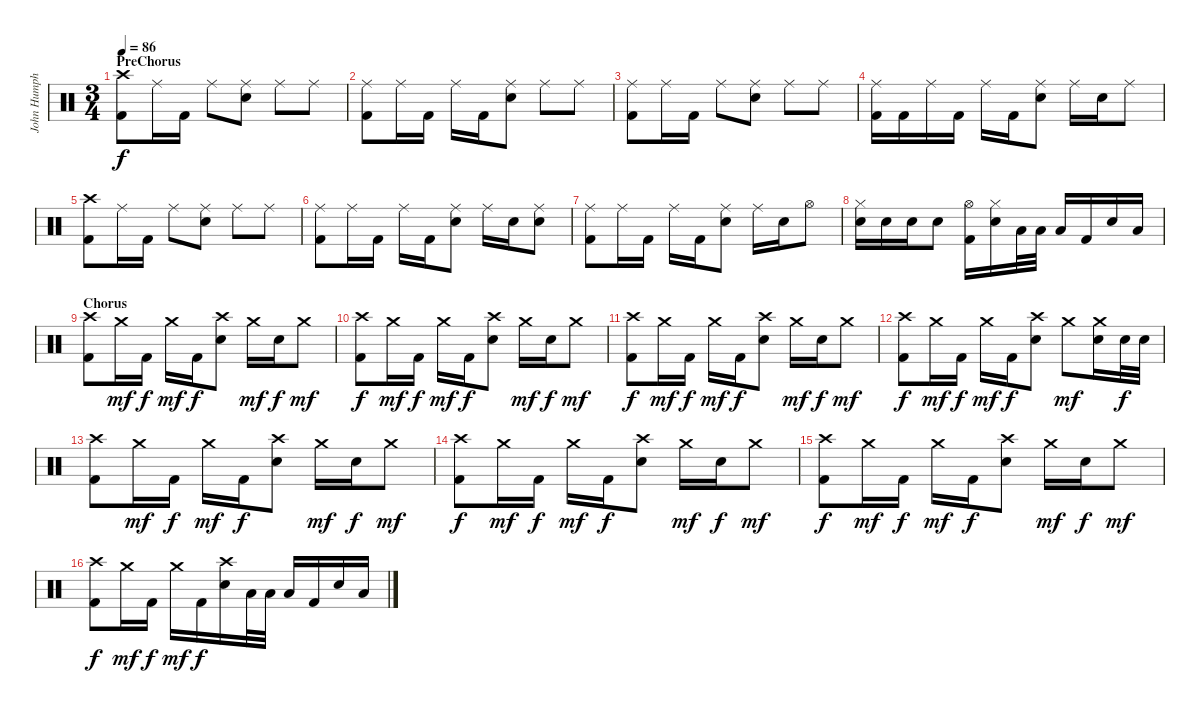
\track ("John Humphrey" "John Humph") {instrument percussion}
\staff {score}
\articulation defaults
\ts (3 4)
\section ("" "PreChorus")
\tempo 86
\clef neutral
\ks c
("Crash high (hit)" "Kick (hit) 2").8{dy f} "Ride (middle)".16 "Kick (hit) 2".16 "Ride (middle)".8 ("Ride (middle)" "Snare (hit) 2").8 "Ride (middle)".8 "Ride (middle)".8 |
("Ride (middle)" "Kick (hit) 2").8 "Ride (middle)".16 "Kick (hit) 2".16 "Ride (middle)".16 "Kick (hit) 2".16 ("Ride (middle)" "Snare (hit) 2").8 "Ride (middle)".8 "Ride (middle)".8 |
("Ride (middle)" "Kick (hit) 2").8 "Ride (middle)".16 "Kick (hit) 2".16 "Ride (middle)".8 ("Ride (middle)" "Snare (hit) 2").8 "Ride (middle)".8 "Ride (middle)".8 |
("Ride (middle)" "Kick (hit) 2").16 "Kick (hit) 2".16 "Ride (middle)".16 "Kick (hit) 2".16 "Ride (middle)".16 "Kick (hit) 2".16 ("Ride (middle)" "Snare (hit) 2").8 "Ride (middle)".16 "Snare (hit) 2".16 "Ride (middle)".8 |
("Crash high (hit)" "Kick (hit) 2").8 "Ride (middle)".16 "Kick (hit) 2".16 "Ride (middle)".8 ("Ride (middle)" "Snare (hit) 2").8 "Ride (middle)".8 "Ride (middle)".8 |
("Ride (middle)" "Kick (hit) 2").8 "Ride (middle)".16 "Kick (hit) 2".16 "Ride (middle)".16 "Kick (hit) 2".16 ("Ride (middle)" "Snare (hit) 2").8 "Ride (middle)".16 "Snare (hit) 2".16 ("Ride (middle)" "Snare (hit) 2").8 |
("Ride (middle)" "Kick (hit) 2").8 "Ride (middle)".16 "Kick (hit) 2".16 "Ride (middle)".16 "Kick (hit) 2".16 ("Ride (middle)" "Snare (hit) 2").8 "Ride (middle)".16 "Snare (hit) 2".16 "Hi-Hat (open)".8 |
("Hi-Hat (closed)" "Snare (hit) 2").16 "Snare (hit) 2".16 "Snare (hit) 2".16 "Snare (hit) 2".8 ("Hi-Hat (open)" "Kick (hit) 2").16 ("Hi-Hat (closed)" "Snare (hit) 2").16 "Low Tom (hit)".32 "Low Tom (hit)".32 "Low Tom (hit)".16 "Kick (hit) 2".16 "Snare (hit) 2".16 "Low Floor Tom (hit)".16 |
\section ("" "Chorus")
("Crash high (hit)" "Kick (hit) 2").8 "Crash medium (hit)".16{dy mf} "Kick (hit) 2".16{dy f} "Crash medium (hit)".16{dy mf} "Kick (hit) 2".16{dy f} ("Crash high (hit)" "Snare (hit) 2").8 "Crash medium (hit)".16{dy mf} "Snare (hit) 2".16{dy f} "Crash medium (hit)".8{dy mf} |
("Crash high (hit)" "Kick (hit) 2").8{dy f} "Crash medium (hit)".16{dy mf} "Kick (hit) 2".16{dy f} "Crash medium (hit)".16{dy mf} "Kick (hit) 2".16{dy f} ("Crash high (hit)" "Snare (hit) 2").8 "Crash medium (hit)".16{dy mf} "Snare (hit) 2".16{dy f} "Crash medium (hit)".8{dy mf} |
("Crash high (hit)" "Kick (hit) 2").8{dy f} "Crash medium (hit)".16{dy mf} "Kick (hit) 2".16{dy f} "Crash medium (hit)".16{dy mf} "Kick (hit) 2".16{dy f} ("Crash high (hit)" "Snare (hit) 2").8 "Crash medium (hit)".16{dy mf} "Snare (hit) 2".16{dy f} "Crash medium (hit)".8{dy mf} |
("Crash high (hit)" "Kick (hit) 2").8{dy f} "Crash medium (hit)".16{dy mf} "Kick (hit) 2".16{dy f} "Crash medium (hit)".16{dy mf} "Kick (hit) 2".16{dy f} ("Crash high (hit)" "Snare (hit) 2").8 "Crash medium (hit)".8{dy mf} ("Crash medium (hit)" "Snare (hit) 2").16 "Snare (hit) 2".32{dy f} "Snare (hit) 2".32 |
("Crash high (hit)" "Kick (hit) 2").8 "Crash medium (hit)".16{dy mf} "Kick (hit) 2".16{dy f} "Crash medium (hit)".16{dy mf} "Kick (hit) 2".16{dy f} ("Crash high (hit)" "Snare (hit) 2").8 "Crash medium (hit)".16{dy mf} "Snare (hit) 2".16{dy f} "Crash medium (hit)".8{dy mf} |
("Crash high (hit)" "Kick (hit) 2").8{dy f} "Crash medium (hit)".16{dy mf} "Kick (hit) 2".16{dy f} "Crash medium (hit)".16{dy mf} "Kick (hit) 2".16{dy f} ("Crash high (hit)" "Snare (hit) 2").8 "Crash medium (hit)".16{dy mf} "Snare (hit) 2".16{dy f} "Crash medium (hit)".8{dy mf} |
("Crash high (hit)" "Kick (hit) 2").8{dy f} "Crash medium (hit)".16{dy mf} "Kick (hit) 2".16{dy f} "Crash medium (hit)".16{dy mf} "Kick (hit) 2".16{dy f} ("Crash high (hit)" "Snare (hit) 2").8 "Crash medium (hit)".16{dy mf} "Snare (hit) 2".16{dy f} "Crash medium (hit)".8{dy mf} |
("Crash high (hit)" "Kick (hit) 2").8{dy f} "Crash medium (hit)".16{dy mf} "Kick (hit) 2".16{dy f} "Crash medium (hit)".16{dy mf} "Kick (hit) 2".16{dy f} ("Crash high (hit)" "Snare (hit) 2").16 "Low Tom (hit)".32 "Low Tom (hit)".32 "Low Tom (hit)".16 "Kick (hit) 2".16 "Snare (hit) 2".16 "Low Floor Tom (hit)".16
